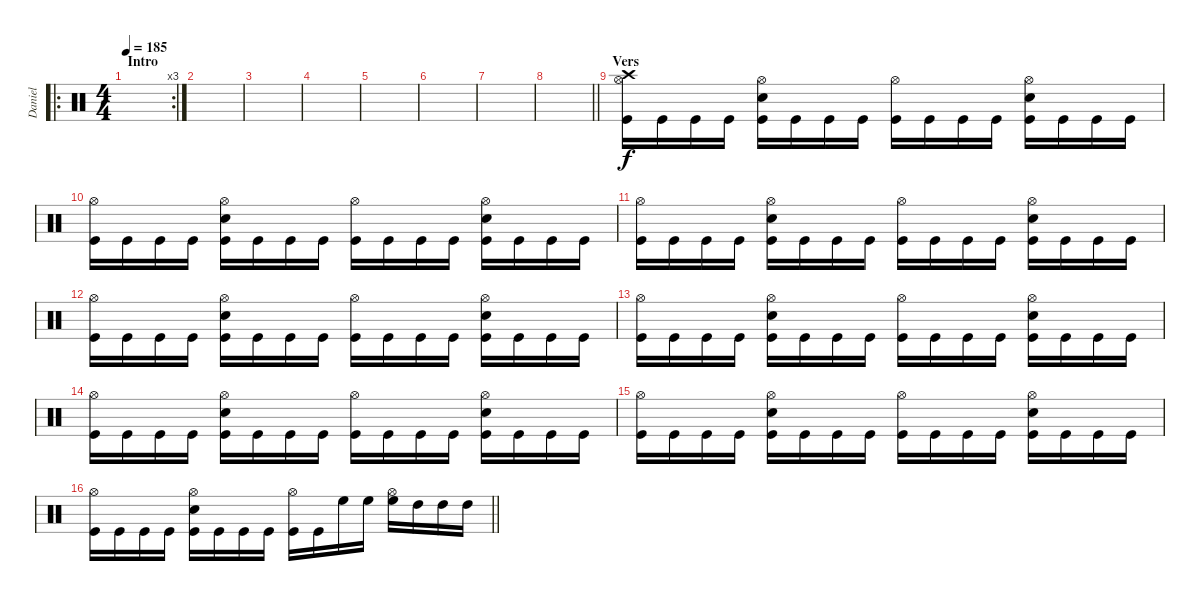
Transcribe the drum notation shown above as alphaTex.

\track ("Daniel" "Daniel") {instrument percussion}
\staff {score}
\articulation defaults
\ro
\rc 3
\ts (4 4)
\section ("" "Intro")
\tempo 185
\clef neutral
\ks c
|
|
|
|
|
|
|
\barLineRight lightlight
|
\section ("" "Vers")
("Crash high (hit)" "Hi-Hat (open)" "Kick (hit)").16 "Kick (hit)".16 "Kick (hit)".16 "Kick (hit)".16 ("Hi-Hat (open)" "Electric Snare (hit)" "Kick (hit)").16 "Kick (hit)".16 "Kick (hit)".16 "Kick (hit)".16 ("Hi-Hat (open)" "Kick (hit)").16 "Kick (hit)".16 "Kick (hit)".16 "Kick (hit)".16 ("Hi-Hat (open)" "Electric Snare (hit)" "Kick (hit)").16 "Kick (hit)".16 "Kick (hit)".16 "Kick (hit)".16 |
("Hi-Hat (open)" "Kick (hit)").16 "Kick (hit)".16 "Kick (hit)".16 "Kick (hit)".16 ("Hi-Hat (open)" "Electric Snare (hit)" "Kick (hit)").16 "Kick (hit)".16 "Kick (hit)".16 "Kick (hit)".16 ("Hi-Hat (open)" "Kick (hit)").16 "Kick (hit)".16 "Kick (hit)".16 "Kick (hit)".16 ("Hi-Hat (open)" "Electric Snare (hit)" "Kick (hit)").16 "Kick (hit)".16 "Kick (hit)".16 "Kick (hit)".16 |
("Hi-Hat (open)" "Kick (hit)").16 "Kick (hit)".16 "Kick (hit)".16 "Kick (hit)".16 ("Hi-Hat (open)" "Electric Snare (hit)" "Kick (hit)").16 "Kick (hit)".16 "Kick (hit)".16 "Kick (hit)".16 ("Hi-Hat (open)" "Kick (hit)").16 "Kick (hit)".16 "Kick (hit)".16 "Kick (hit)".16 ("Hi-Hat (open)" "Electric Snare (hit)" "Kick (hit)").16 "Kick (hit)".16 "Kick (hit)".16 "Kick (hit)".16 |
("Hi-Hat (open)" "Kick (hit)").16 "Kick (hit)".16 "Kick (hit)".16 "Kick (hit)".16 ("Hi-Hat (open)" "Electric Snare (hit)" "Kick (hit)").16 "Kick (hit)".16 "Kick (hit)".16 "Kick (hit)".16 ("Hi-Hat (open)" "Kick (hit)").16 "Kick (hit)".16 "Kick (hit)".16 "Kick (hit)".16 ("Hi-Hat (open)" "Electric Snare (hit)" "Kick (hit)").16 "Kick (hit)".16 "Kick (hit)".16 "Kick (hit)".16 |
("Hi-Hat (open)" "Kick (hit)").16 "Kick (hit)".16 "Kick (hit)".16 "Kick (hit)".16 ("Hi-Hat (open)" "Electric Snare (hit)" "Kick (hit)").16 "Kick (hit)".16 "Kick (hit)".16 "Kick (hit)".16 ("Hi-Hat (open)" "Kick (hit)").16 "Kick (hit)".16 "Kick (hit)".16 "Kick (hit)".16 ("Hi-Hat (open)" "Electric Snare (hit)" "Kick (hit)").16 "Kick (hit)".16 "Kick (hit)".16 "Kick (hit)".16 |
("Hi-Hat (open)" "Kick (hit)").16 "Kick (hit)".16 "Kick (hit)".16 "Kick (hit)".16 ("Hi-Hat (open)" "Electric Snare (hit)" "Kick (hit)").16 "Kick (hit)".16 "Kick (hit)".16 "Kick (hit)".16 ("Hi-Hat (open)" "Kick (hit)").16 "Kick (hit)".16 "Kick (hit)".16 "Kick (hit)".16 ("Hi-Hat (open)" "Electric Snare (hit)" "Kick (hit)").16 "Kick (hit)".16 "Kick (hit)".16 "Kick (hit)".16 |
("Hi-Hat (open)" "Kick (hit)").16 "Kick (hit)".16 "Kick (hit)".16 "Kick (hit)".16 ("Hi-Hat (open)" "Electric Snare (hit)" "Kick (hit)").16 "Kick (hit)".16 "Kick (hit)".16 "Kick (hit)".16 ("Hi-Hat (open)" "Kick (hit)").16 "Kick (hit)".16 "Kick (hit)".16 "Kick (hit)".16 ("Hi-Hat (open)" "Electric Snare (hit)" "Kick (hit)").16 "Kick (hit)".16 "Kick (hit)".16 "Kick (hit)".16 |
\barLineRight lightlight
("Hi-Hat (open)" "Kick (hit)").16 "Kick (hit)".16 "Kick (hit)".16 "Kick (hit)".16 ("Hi-Hat (open)" "Electric Snare (hit)" "Kick (hit)").16 "Kick (hit)".16 "Kick (hit)".16 "Kick (hit)".16 ("Hi-Hat (open)" "Kick (hit)").16 "Kick (hit)".16 "High Floor Tom (hit)".16 "High Floor Tom (hit)".16 ("Hi-Hat (open)" "High Floor Tom (hit)").16 "High Tom (hit)".16 "High Tom (hit)".16 "High Tom (hit)".16
